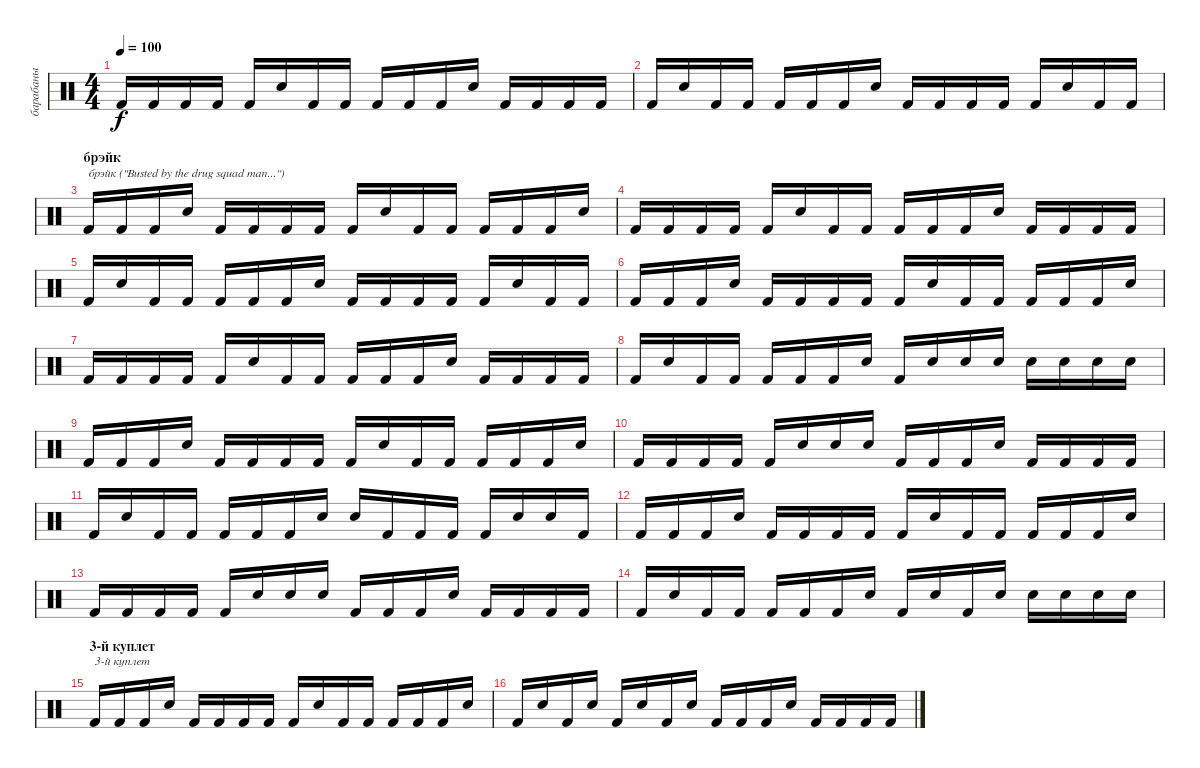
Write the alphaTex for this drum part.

\track ("барабаны" "барабаны") {instrument percussion}
\staff {score}
\articulation defaults
\ts (4 4)
\tempo 100
\clef neutral
\ks c "Kick (hit) 2".16{dy f} "Kick (hit) 2".16 "Kick (hit) 2".16 "Kick (hit) 2".16 "Kick (hit) 2".16 "Electric Snare (hit)".16 "Kick (hit) 2".16 "Kick (hit) 2".16 "Kick (hit) 2".16 "Kick (hit) 2".16 "Kick (hit) 2".16 "Electric Snare (hit)".16 "Kick (hit) 2".16 "Kick (hit) 2".16 "Kick (hit) 2".16 "Kick (hit) 2".16
|
"Kick (hit) 2".16 "Electric Snare (hit)".16 "Kick (hit) 2".16 "Kick (hit) 2".16 "Kick (hit) 2".16 "Kick (hit) 2".16 "Kick (hit) 2".16 "Electric Snare (hit)".16 "Kick (hit) 2".16 "Kick (hit) 2".16 "Kick (hit) 2".16 "Kick (hit) 2".16 "Kick (hit) 2".16 "Electric Snare (hit)".16 "Kick (hit) 2".16 "Kick (hit) 2".16 |
\section ("" "брэйк")
"Kick (hit) 2".16{txt "брэйк (\"Busted by the drug squad man...\")"} "Kick (hit) 2".16 "Kick (hit) 2".16 "Electric Snare (hit)".16 "Kick (hit) 2".16 "Kick (hit) 2".16 "Kick (hit) 2".16 "Kick (hit) 2".16 "Kick (hit) 2".16 "Electric Snare (hit)".16 "Kick (hit) 2".16 "Kick (hit) 2".16 "Kick (hit) 2".16 "Kick (hit) 2".16 "Kick (hit) 2".16 "Electric Snare (hit)".16 |
"Kick (hit) 2".16 "Kick (hit) 2".16 "Kick (hit) 2".16 "Kick (hit) 2".16 "Kick (hit) 2".16 "Electric Snare (hit)".16 "Kick (hit) 2".16 "Kick (hit) 2".16 "Kick (hit) 2".16 "Kick (hit) 2".16 "Kick (hit) 2".16 "Electric Snare (hit)".16 "Kick (hit) 2".16 "Kick (hit) 2".16 "Kick (hit) 2".16 "Kick (hit) 2".16 |
"Kick (hit) 2".16 "Electric Snare (hit)".16 "Kick (hit) 2".16 "Kick (hit) 2".16 "Kick (hit) 2".16 "Kick (hit) 2".16 "Kick (hit) 2".16 "Electric Snare (hit)".16 "Kick (hit) 2".16 "Kick (hit) 2".16 "Kick (hit) 2".16 "Kick (hit) 2".16 "Kick (hit) 2".16 "Electric Snare (hit)".16 "Kick (hit) 2".16 "Kick (hit) 2".16 |
"Kick (hit) 2".16 "Kick (hit) 2".16 "Kick (hit) 2".16 "Electric Snare (hit)".16 "Kick (hit) 2".16 "Kick (hit) 2".16 "Kick (hit) 2".16 "Kick (hit) 2".16 "Kick (hit) 2".16 "Electric Snare (hit)".16 "Kick (hit) 2".16 "Kick (hit) 2".16 "Kick (hit) 2".16 "Kick (hit) 2".16 "Kick (hit) 2".16 "Electric Snare (hit)".16 |
"Kick (hit) 2".16 "Kick (hit) 2".16 "Kick (hit) 2".16 "Kick (hit) 2".16 "Kick (hit) 2".16 "Electric Snare (hit)".16 "Kick (hit) 2".16 "Kick (hit) 2".16 "Kick (hit) 2".16 "Kick (hit) 2".16 "Kick (hit) 2".16 "Electric Snare (hit)".16 "Kick (hit) 2".16 "Kick (hit) 2".16 "Kick (hit) 2".16 "Kick (hit) 2".16 |
"Kick (hit) 2".16 "Electric Snare (hit)".16 "Kick (hit) 2".16 "Kick (hit) 2".16 "Kick (hit) 2".16 "Kick (hit) 2".16 "Kick (hit) 2".16 "Electric Snare (hit)".16 "Kick (hit) 2".16 "Electric Snare (hit)".16 "Electric Snare (hit)".16 "Electric Snare (hit)".16 "Electric Snare (hit)".16 "Electric Snare (hit)".16 "Electric Snare (hit)".16 "Electric Snare (hit)".16 |
"Kick (hit) 2".16 "Kick (hit) 2".16 "Kick (hit) 2".16 "Electric Snare (hit)".16 "Kick (hit) 2".16 "Kick (hit) 2".16 "Kick (hit) 2".16 "Kick (hit) 2".16 "Kick (hit) 2".16 "Electric Snare (hit)".16 "Kick (hit) 2".16 "Kick (hit) 2".16 "Kick (hit) 2".16 "Kick (hit) 2".16 "Kick (hit) 2".16 "Electric Snare (hit)".16 |
"Kick (hit) 2".16 "Kick (hit) 2".16 "Kick (hit) 2".16 "Kick (hit) 2".16 "Kick (hit) 2".16 "Electric Snare (hit)".16 "Electric Snare (hit)".16 "Electric Snare (hit)".16 "Kick (hit) 2".16 "Kick (hit) 2".16 "Kick (hit) 2".16 "Electric Snare (hit)".16 "Kick (hit) 2".16 "Kick (hit) 2".16 "Kick (hit) 2".16 "Kick (hit) 2".16 |
"Kick (hit) 2".16 "Electric Snare (hit)".16 "Kick (hit) 2".16 "Kick (hit) 2".16 "Kick (hit) 2".16 "Kick (hit) 2".16 "Kick (hit) 2".16 "Electric Snare (hit)".16 "Electric Snare (hit)".16 "Kick (hit) 2".16 "Kick (hit) 2".16 "Kick (hit) 2".16 "Kick (hit) 2".16 "Electric Snare (hit)".16 "Electric Snare (hit)".16 "Kick (hit) 2".16 |
"Kick (hit) 2".16 "Kick (hit) 2".16 "Kick (hit) 2".16 "Electric Snare (hit)".16 "Kick (hit) 2".16 "Kick (hit) 2".16 "Kick (hit) 2".16 "Kick (hit) 2".16 "Kick (hit) 2".16 "Electric Snare (hit)".16 "Kick (hit) 2".16 "Kick (hit) 2".16 "Kick (hit) 2".16 "Kick (hit) 2".16 "Kick (hit) 2".16 "Electric Snare (hit)".16 |
"Kick (hit) 2".16 "Kick (hit) 2".16 "Kick (hit) 2".16 "Kick (hit) 2".16 "Kick (hit) 2".16 "Electric Snare (hit)".16 "Electric Snare (hit)".16 "Electric Snare (hit)".16 "Kick (hit) 2".16 "Kick (hit) 2".16 "Kick (hit) 2".16 "Electric Snare (hit)".16 "Kick (hit) 2".16 "Kick (hit) 2".16 "Kick (hit) 2".16 "Kick (hit) 2".16 |
"Kick (hit) 2".16 "Electric Snare (hit)".16 "Kick (hit) 2".16 "Kick (hit) 2".16 "Kick (hit) 2".16 "Kick (hit) 2".16 "Kick (hit) 2".16 "Electric Snare (hit)".16 "Kick (hit) 2".16 "Electric Snare (hit)".16 "Kick (hit) 2".16 "Electric Snare (hit)".16 "Electric Snare (hit)".16 "Electric Snare (hit)".16 "Electric Snare (hit)".16 "Electric Snare (hit)".16 |
\section ("" "3-й куплет")
"Kick (hit) 2".16{txt "3-й куплет"} "Kick (hit) 2".16 "Kick (hit) 2".16 "Electric Snare (hit)".16 "Kick (hit) 2".16 "Kick (hit) 2".16 "Kick (hit) 2".16 "Kick (hit) 2".16 "Kick (hit) 2".16 "Electric Snare (hit)".16 "Kick (hit) 2".16 "Kick (hit) 2".16 "Kick (hit) 2".16 "Kick (hit) 2".16 "Kick (hit) 2".16 "Electric Snare (hit)".16 |
"Kick (hit) 2".16 "Electric Snare (hit)".16 "Kick (hit) 2".16 "Electric Snare (hit)".16 "Kick (hit) 2".16 "Electric Snare (hit)".16 "Kick (hit) 2".16 "Electric Snare (hit)".16 "Kick (hit) 2".16 "Kick (hit) 2".16 "Kick (hit) 2".16 "Electric Snare (hit)".16 "Kick (hit) 2".16 "Kick (hit) 2".16 "Kick (hit) 2".16 "Kick (hit) 2".16
